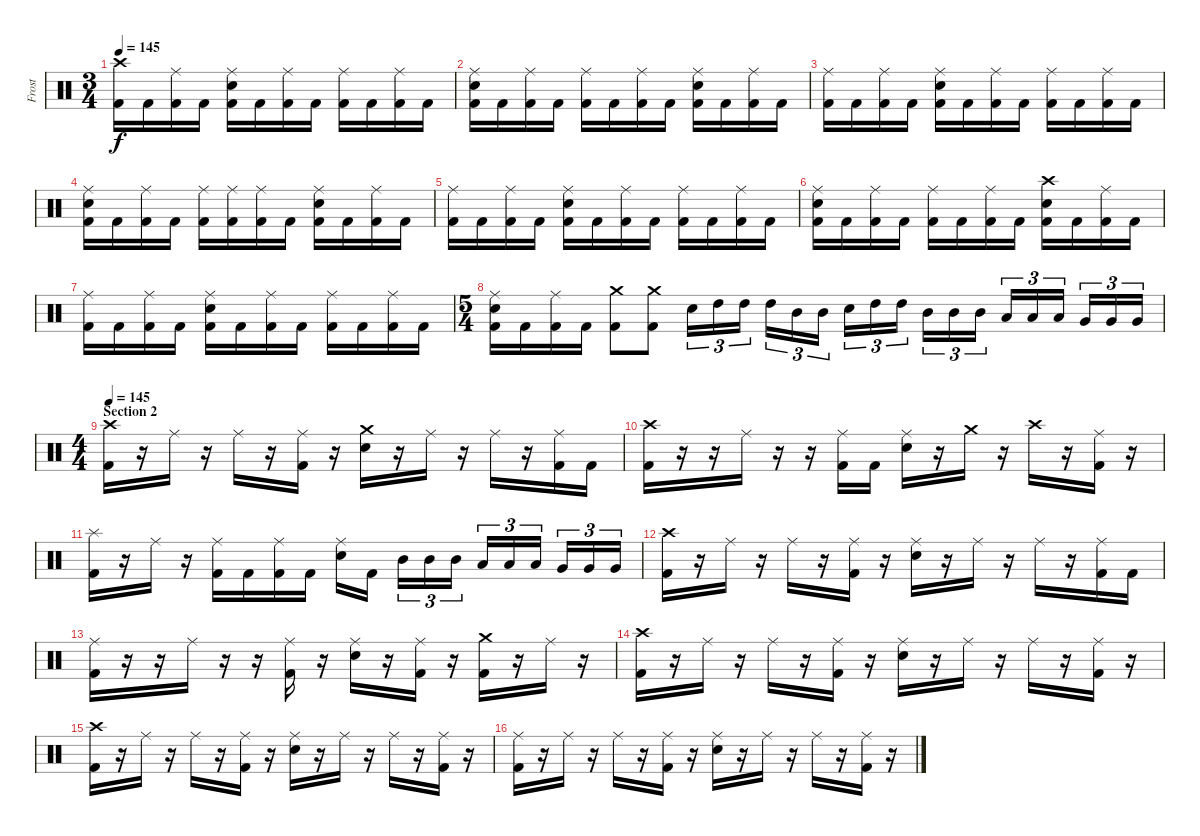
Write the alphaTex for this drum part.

\track ("Frost" "Frost") {instrument percussion}
\staff {score}
\articulation defaults
\ts (3 4)
\tempo 145
\clef neutral
\ks c
("Crash high (hit)" "Kick (hit) 2").16{dy f} "Kick (hit) 2".16 ("Ride (middle)" "Kick (hit) 2").16 "Kick (hit) 2".16 ("Ride (middle)" "Electric Snare (hit)" "Kick (hit) 2").16 "Kick (hit) 2".16 ("Ride (middle)" "Kick (hit) 2").16 "Kick (hit) 2".16 ("Ride (middle)" "Kick (hit) 2").16 "Kick (hit) 2".16 ("Ride (middle)" "Kick (hit) 2").16 "Kick (hit) 2".16 |
("Ride (middle)" "Electric Snare (hit)" "Kick (hit) 2").16 "Kick (hit) 2".16 ("Ride (middle)" "Kick (hit) 2").16 "Kick (hit) 2".16 ("Ride (middle)" "Kick (hit) 2").16 "Kick (hit) 2".16 ("Ride (middle)" "Kick (hit) 2").16 "Kick (hit) 2".16 ("Ride (middle)" "Electric Snare (hit)" "Kick (hit) 2").16 "Kick (hit) 2".16 ("Ride (middle)" "Kick (hit) 2").16 "Kick (hit) 2".16 |
("Ride (middle)" "Kick (hit) 2").16 "Kick (hit) 2".16 ("Ride (middle)" "Kick (hit) 2").16 "Kick (hit) 2".16 ("Ride (middle)" "Electric Snare (hit)" "Kick (hit) 2").16 "Kick (hit) 2".16 ("Ride (middle)" "Kick (hit) 2").16 "Kick (hit) 2".16 ("Ride (middle)" "Kick (hit) 2").16 "Kick (hit) 2".16 ("Ride (middle)" "Kick (hit) 2").16 "Kick (hit) 2".16 |
("Ride (middle)" "Electric Snare (hit)" "Kick (hit) 2").16 "Kick (hit) 2".16 ("Ride (middle)" "Kick (hit) 2").16 "Kick (hit) 2".16 ("Ride (middle)" "Kick (hit) 2").16 ("Ride (middle)" "Kick (hit) 2").16 ("Ride (middle)" "Kick (hit) 2").16 "Kick (hit) 2".16 ("Ride (middle)" "Electric Snare (hit)" "Kick (hit) 2").16 "Kick (hit) 2".16 ("Ride (middle)" "Kick (hit) 2").16 "Kick (hit) 2".16 |
("Ride (middle)" "Kick (hit) 2").16 "Kick (hit) 2".16 ("Ride (middle)" "Kick (hit) 2").16 "Kick (hit) 2".16 ("Ride (middle)" "Electric Snare (hit)" "Kick (hit) 2").16 "Kick (hit) 2".16 ("Ride (middle)" "Kick (hit) 2").16 "Kick (hit) 2".16 ("Ride (middle)" "Kick (hit) 2").16 "Kick (hit) 2".16 ("Ride (middle)" "Kick (hit) 2").16 "Kick (hit) 2".16 |
("Ride (middle)" "Electric Snare (hit)" "Kick (hit) 2").16 "Kick (hit) 2".16 ("Ride (middle)" "Kick (hit) 2").16 "Kick (hit) 2".16 ("Ride (middle)" "Kick (hit) 2").16 "Kick (hit) 2".16 ("Ride (middle)" "Kick (hit) 2").16 "Kick (hit) 2".16 ("Crash high (hit)" "Electric Snare (hit)" "Kick (hit) 2").16 "Kick (hit) 2".16 ("Ride (middle)" "Kick (hit) 2").16 "Kick (hit) 2".16 |
("Ride (middle)" "Kick (hit) 2").16 "Kick (hit) 2".16 ("Ride (middle)" "Kick (hit) 2").16 "Kick (hit) 2".16 ("Ride (middle)" "Electric Snare (hit)" "Kick (hit) 2").16 "Kick (hit) 2".16 ("Ride (middle)" "Kick (hit) 2").16 "Kick (hit) 2".16 ("Ride (middle)" "Kick (hit) 2").16 "Kick (hit) 2".16 ("Ride (middle)" "Kick (hit) 2").16 "Kick (hit) 2".16 |
\ts (5 4)
("Ride (middle)" "Electric Snare (hit)" "Kick (hit) 2").16 "Kick (hit) 2".16 ("Ride (middle)" "Kick (hit) 2").16 "Kick (hit) 2".16 ("Crash medium (hit)" "Kick (hit) 2").8 ("Crash medium (hit)" "Kick (hit) 2").8 "Electric Snare (hit)".16{tu (3 2)} "High Tom (hit)".16{tu (3 2)} "High Tom (hit)".16{tu (3 2)} "High Tom (hit)".16{tu (3 2)} "Mid Tom (hit)".16{tu (3 2)} "Mid Tom (hit)".16{tu (3 2)} "Electric Snare (hit)".16{tu (3 2)} "High Tom (hit)".16{tu (3 2)} "High Tom (hit)".16{tu (3 2)} "Mid Tom (hit)".16{tu (3 2)} "Mid Tom (hit)".16{tu (3 2)} "Mid Tom (hit)".16{tu (3 2)} "Low Tom (hit)".16{tu (3 2)} "Low Tom (hit)".16{tu (3 2)} "Low Tom (hit)".16{tu (3 2)} "Very Low Tom (hit)".16{tu (3 2)} "Very Low Tom (hit)".16{tu (3 2)} "Very Low Tom (hit)".16{tu (3 2)} |
\ts (4 4)
\section ("" "Section 2")
\tempo 145
("Crash high (hit)" "Kick (hit) 2").16 r.16 "Ride (middle)".16 r.16 "Ride (middle)".16 r.16 ("Ride (middle)" "Kick (hit) 2").16 r.16 ("Crash medium (hit)" "Electric Snare (hit)").16 r.16 "Ride (middle)".16 r.16 "Ride (middle)".16 r.16 ("Ride (middle)" "Kick (hit) 2").16 "Kick (hit) 2".16 |
("Crash high (hit)" "Kick (hit) 2").16 r.16 r.16 "Ride (middle)".16 r.16 r.16 ("Ride (middle)" "Kick (hit) 2").16 "Kick (hit) 2".16 ("Ride (middle)" "Electric Snare (hit)").16 r.16 "Crash medium (hit)".16 r.16 "Crash high (hit)".16 r.16 ("Ride (middle)" "Kick (hit) 2").16 r.16 |
("Splash (hit)" "Kick (hit) 2").16 r.16 "Ride (middle)".16 r.16 ("Ride (middle)" "Kick (hit) 2").16 "Kick (hit) 2".16 ("Ride (middle)" "Kick (hit) 2").16 "Kick (hit) 2".16 ("Ride (middle)" "Electric Snare (hit)").16 "Kick (hit) 2".16 "Mid Tom (hit)".16{tu (3 2)} "Mid Tom (hit)".16{tu (3 2)} "Mid Tom (hit)".16{tu (3 2)} "Low Tom (hit)".16{tu (3 2)} "Low Tom (hit)".16{tu (3 2)} "Low Tom (hit)".16{tu (3 2)} "Very Low Tom (hit)".16{tu (3 2)} "Very Low Tom (hit)".16{tu (3 2)} "Very Low Tom (hit)".16{tu (3 2)} |
("Crash high (hit)" "Kick (hit) 2").16 r.16 "Ride (middle)".16 r.16 "Ride (middle)".16 r.16 ("Ride (middle)" "Kick (hit) 2").16 r.16 ("Ride (middle)" "Electric Snare (hit)").16 r.16 "Ride (middle)".16 r.16 "Ride (middle)".16 r.16 ("Ride (middle)" "Kick (hit) 2").16 "Kick (hit) 2".16 |
("Ride (middle)" "Kick (hit) 2").16 r.16 r.16 "Ride (middle)".16 r.16 r.16 ("Ride (middle)" "Kick (hit) 2").16 r.16 ("Ride (middle)" "Electric Snare (hit)").16 r.16 ("Ride (middle)" "Kick (hit) 2").16 r.16 ("Crash medium (hit)" "Kick (hit) 2").16 r.16 "Ride (middle)".16 r.16 |
("Crash high (hit)" "Kick (hit) 2").16 r.16 "Ride (middle)".16 r.16 "Ride (middle)".16 r.16 ("Ride (middle)" "Kick (hit) 2").16 r.16 ("Ride (middle)" "Electric Snare (hit)").16 r.16 "Ride (middle)".16 r.16 "Ride (middle)".16 r.16 ("Ride (middle)" "Kick (hit) 2").16 r.16 |
("Crash high (hit)" "Kick (hit) 2").16 r.16 "Ride (middle)".16 r.16 "Ride (middle)".16 r.16 ("Ride (middle)" "Kick (hit) 2").16 r.16 ("Ride (middle)" "Electric Snare (hit)").16 r.16 "Ride (middle)".16 r.16 "Ride (middle)".16 r.16 ("Ride (middle)" "Kick (hit) 2").16 r.16 |
("Ride (middle)" "Kick (hit) 2").16 r.16 "Ride (middle)".16 r.16 "Ride (middle)".16 r.16 ("Ride (middle)" "Kick (hit) 2").16 r.16 ("Ride (middle)" "Electric Snare (hit)").16 r.16 "Ride (middle)".16 r.16 "Ride (middle)".16 r.16 ("Ride (middle)" "Kick (hit) 2").16 r.16
